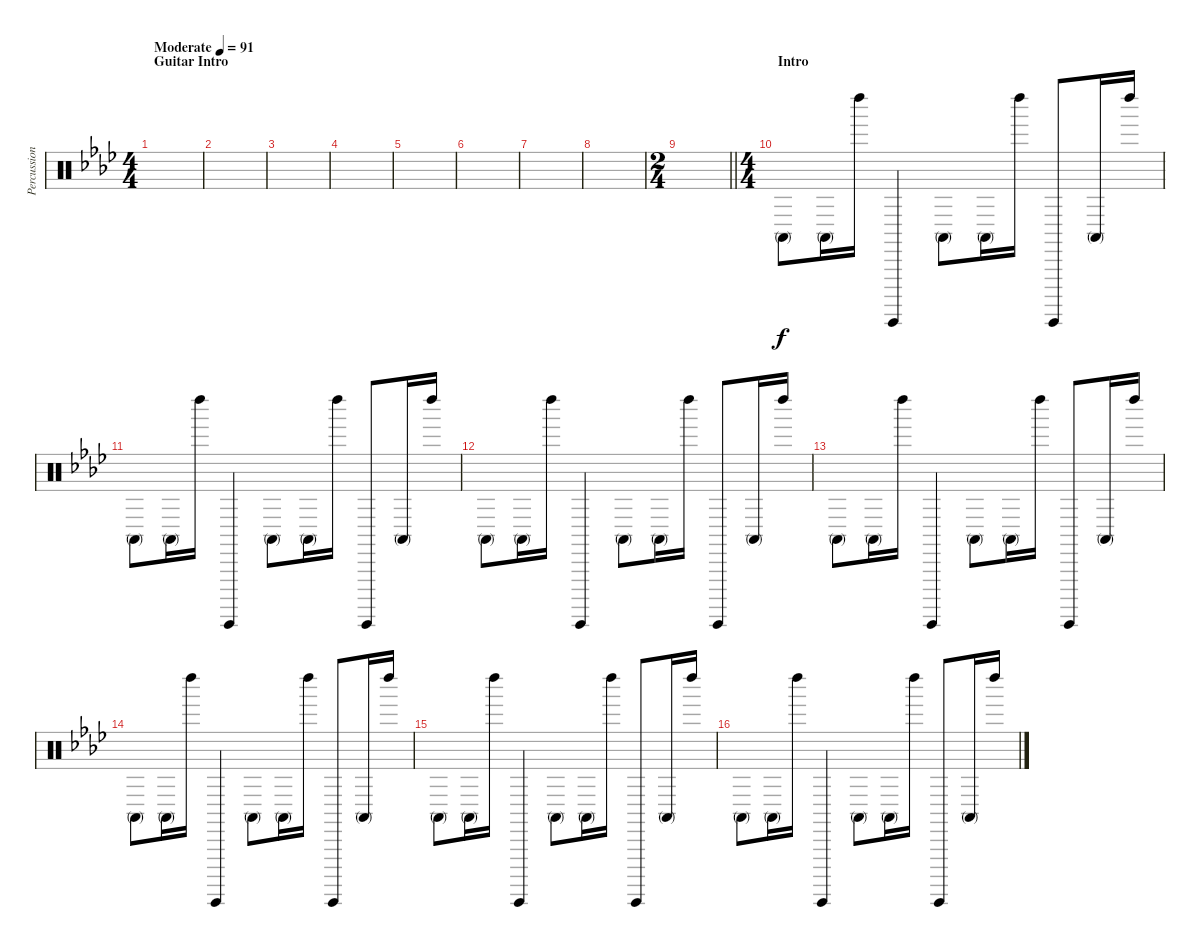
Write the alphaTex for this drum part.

\track ("Percussion" "Percussion") {instrument percussion}
\staff {score}
\articulation defaults
\ts (4 4)
\section ("" "Guitar Intro")
\tempo (91 "Moderate")
\clef neutral
\ks fminor
|
|
|
|
|
|
|
|
\ts (2 4)
\barLineRight lightlight
|
\ts (4 4)
\section ("" "Intro")
"Conga high (mute)".8 "Conga high (mute)".16 "Left Maraca (hit)".16 "Guiro (hit)".4 "Conga high (mute)".8 "Conga high (mute)".16 "Left Maraca (hit)".16 "Guiro (hit)".8 "Conga high (mute)".16 "Left Maraca (hit)".16 |
"Conga high (mute)".8 "Conga high (mute)".16 "Left Maraca (hit)".16 "Guiro (hit)".4 "Conga high (mute)".8 "Conga high (mute)".16 "Left Maraca (hit)".16 "Guiro (hit)".8 "Conga high (mute)".16 "Left Maraca (hit)".16 |
"Conga high (mute)".8 "Conga high (mute)".16 "Left Maraca (hit)".16 "Guiro (hit)".4 "Conga high (mute)".8 "Conga high (mute)".16 "Left Maraca (hit)".16 "Guiro (hit)".8 "Conga high (mute)".16 "Left Maraca (hit)".16 |
"Conga high (mute)".8 "Conga high (mute)".16 "Left Maraca (hit)".16 "Guiro (hit)".4 "Conga high (mute)".8 "Conga high (mute)".16 "Left Maraca (hit)".16 "Guiro (hit)".8 "Conga high (mute)".16 "Left Maraca (hit)".16 |
"Conga high (mute)".8 "Conga high (mute)".16 "Left Maraca (hit)".16 "Guiro (hit)".4 "Conga high (mute)".8 "Conga high (mute)".16 "Left Maraca (hit)".16 "Guiro (hit)".8 "Conga high (mute)".16 "Left Maraca (hit)".16 |
"Conga high (mute)".8 "Conga high (mute)".16 "Left Maraca (hit)".16 "Guiro (hit)".4 "Conga high (mute)".8 "Conga high (mute)".16 "Left Maraca (hit)".16 "Guiro (hit)".8 "Conga high (mute)".16 "Left Maraca (hit)".16 |
"Conga high (mute)".8 "Conga high (mute)".16 "Left Maraca (hit)".16 "Guiro (hit)".4 "Conga high (mute)".8 "Conga high (mute)".16 "Left Maraca (hit)".16 "Guiro (hit)".8 "Conga high (mute)".16 "Left Maraca (hit)".16
